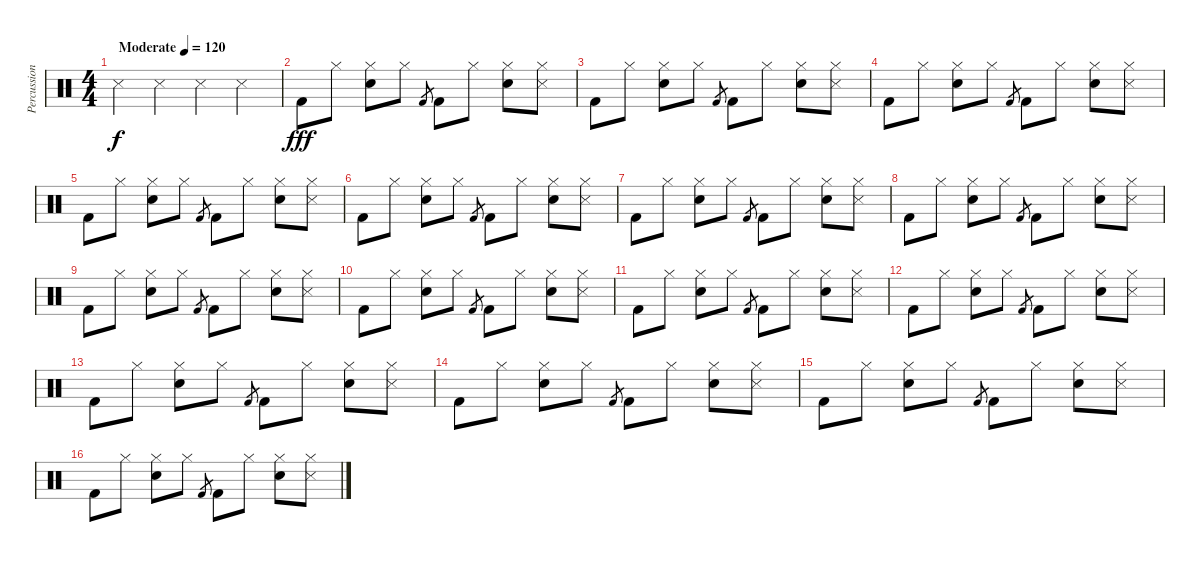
\track ("Percussion" "Percussion") {instrument percussion}
\staff {score}
\articulation defaults
\ts (4 4)
\tempo (120 "Moderate")
\clef neutral
\ks c "Snare (side stick) 3".4{dy f} "Snare (side stick) 3".4 "Snare (side stick) 3".4 "Snare (side stick) 3".4
|
"Kick (hit) 2".8{dy fff} "Hi-Hat (closed)".8 ("Hi-Hat (closed)" "Snare (hit) 2").8 "Hi-Hat (closed)".8 "Kick (hit) 2".8{gr} "Kick (hit) 2".8 "Hi-Hat (closed)".8 ("Hi-Hat (closed)" "Snare (hit) 2").8 ("Hi-Hat (closed)" "Snare (side stick) 3").8 |
"Kick (hit) 2".8 "Hi-Hat (closed)".8 ("Hi-Hat (closed)" "Snare (hit) 2").8 "Hi-Hat (closed)".8 "Kick (hit) 2".8{gr} "Kick (hit) 2".8 "Hi-Hat (closed)".8 ("Hi-Hat (closed)" "Snare (hit) 2").8 ("Hi-Hat (closed)" "Snare (side stick) 3").8 |
"Kick (hit) 2".8 "Hi-Hat (closed)".8 ("Hi-Hat (closed)" "Snare (hit) 2").8 "Hi-Hat (closed)".8 "Kick (hit) 2".8{gr} "Kick (hit) 2".8 "Hi-Hat (closed)".8 ("Hi-Hat (closed)" "Snare (hit) 2").8 ("Hi-Hat (closed)" "Snare (side stick) 3").8 |
"Kick (hit) 2".8 "Hi-Hat (closed)".8 ("Hi-Hat (closed)" "Snare (hit) 2").8 "Hi-Hat (closed)".8 "Kick (hit) 2".8{gr} "Kick (hit) 2".8 "Hi-Hat (closed)".8 ("Hi-Hat (closed)" "Snare (hit) 2").8 ("Hi-Hat (closed)" "Snare (side stick) 3").8 |
"Kick (hit) 2".8 "Hi-Hat (closed)".8 ("Hi-Hat (closed)" "Snare (hit) 2").8 "Hi-Hat (closed)".8 "Kick (hit) 2".8{gr} "Kick (hit) 2".8 "Hi-Hat (closed)".8 ("Hi-Hat (closed)" "Snare (hit) 2").8 ("Hi-Hat (closed)" "Snare (side stick) 3").8 |
"Kick (hit) 2".8 "Hi-Hat (closed)".8 ("Hi-Hat (closed)" "Snare (hit) 2").8 "Hi-Hat (closed)".8 "Kick (hit) 2".8{gr} "Kick (hit) 2".8 "Hi-Hat (closed)".8 ("Hi-Hat (closed)" "Snare (hit) 2").8 ("Hi-Hat (closed)" "Snare (side stick) 3").8 |
"Kick (hit) 2".8 "Hi-Hat (closed)".8 ("Hi-Hat (closed)" "Snare (hit) 2").8 "Hi-Hat (closed)".8 "Kick (hit) 2".8{gr} "Kick (hit) 2".8 "Hi-Hat (closed)".8 ("Hi-Hat (closed)" "Snare (hit) 2").8 ("Hi-Hat (closed)" "Snare (side stick) 3").8 |
"Kick (hit) 2".8 "Hi-Hat (closed)".8 ("Hi-Hat (closed)" "Snare (hit) 2").8 "Hi-Hat (closed)".8 "Kick (hit) 2".8{gr} "Kick (hit) 2".8 "Hi-Hat (closed)".8 ("Hi-Hat (closed)" "Snare (hit) 2").8 ("Hi-Hat (closed)" "Snare (side stick) 3").8 |
"Kick (hit) 2".8 "Hi-Hat (closed)".8 ("Hi-Hat (closed)" "Snare (hit) 2").8 "Hi-Hat (closed)".8 "Kick (hit) 2".8{gr} "Kick (hit) 2".8 "Hi-Hat (closed)".8 ("Hi-Hat (closed)" "Snare (hit) 2").8 ("Hi-Hat (closed)" "Snare (side stick) 3").8 |
"Kick (hit) 2".8 "Hi-Hat (closed)".8 ("Hi-Hat (closed)" "Snare (hit) 2").8 "Hi-Hat (closed)".8 "Kick (hit) 2".8{gr} "Kick (hit) 2".8 "Hi-Hat (closed)".8 ("Hi-Hat (closed)" "Snare (hit) 2").8 ("Hi-Hat (closed)" "Snare (side stick) 3").8 |
"Kick (hit) 2".8 "Hi-Hat (closed)".8 ("Hi-Hat (closed)" "Snare (hit) 2").8 "Hi-Hat (closed)".8 "Kick (hit) 2".8{gr} "Kick (hit) 2".8 "Hi-Hat (closed)".8 ("Hi-Hat (closed)" "Snare (hit) 2").8 ("Hi-Hat (closed)" "Snare (side stick) 3").8 |
"Kick (hit) 2".8 "Hi-Hat (closed)".8 ("Hi-Hat (closed)" "Snare (hit) 2").8 "Hi-Hat (closed)".8 "Kick (hit) 2".8{gr} "Kick (hit) 2".8 "Hi-Hat (closed)".8 ("Hi-Hat (closed)" "Snare (hit) 2").8 ("Hi-Hat (closed)" "Snare (side stick) 3").8 |
"Kick (hit) 2".8 "Hi-Hat (closed)".8 ("Hi-Hat (closed)" "Snare (hit) 2").8 "Hi-Hat (closed)".8 "Kick (hit) 2".8{gr} "Kick (hit) 2".8 "Hi-Hat (closed)".8 ("Hi-Hat (closed)" "Snare (hit) 2").8 ("Hi-Hat (closed)" "Snare (side stick) 3").8 |
"Kick (hit) 2".8 "Hi-Hat (closed)".8 ("Hi-Hat (closed)" "Snare (hit) 2").8 "Hi-Hat (closed)".8 "Kick (hit) 2".8{gr} "Kick (hit) 2".8 "Hi-Hat (closed)".8 ("Hi-Hat (closed)" "Snare (hit) 2").8 ("Hi-Hat (closed)" "Snare (side stick) 3").8 |
"Kick (hit) 2".8 "Hi-Hat (closed)".8 ("Hi-Hat (closed)" "Snare (hit) 2").8 "Hi-Hat (closed)".8 "Kick (hit) 2".8{gr} "Kick (hit) 2".8 "Hi-Hat (closed)".8 ("Hi-Hat (closed)" "Snare (hit) 2").8 ("Hi-Hat (closed)" "Snare (side stick) 3").8
